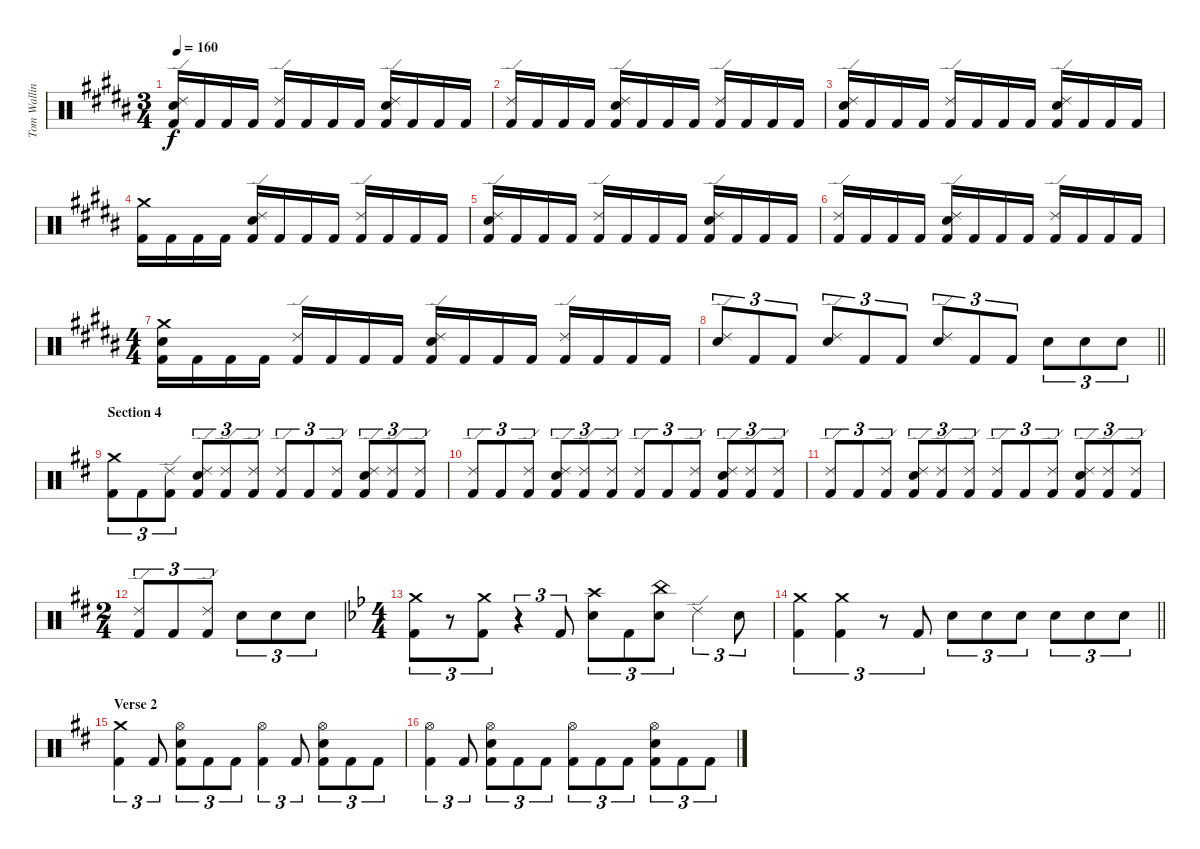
\track ("Tom Walling (drums)" "Tom Wallin") {instrument percussion}
\staff {score}
\articulation defaults
\ts (3 4)
\tempo 160
\clef neutral
\ks g#minor
("Electric Snare (hit)" "Kick (hit) 2" "Ride (edge) 2").16{dy f} "Kick (hit) 2".16 "Kick (hit) 2".16 "Kick (hit) 2".16 ("Kick (hit) 2" "Ride (edge) 2").16 "Kick (hit) 2".16 "Kick (hit) 2".16 "Kick (hit) 2".16 ("Electric Snare (hit)" "Kick (hit) 2" "Ride (edge) 2").16 "Kick (hit) 2".16 "Kick (hit) 2".16 "Kick (hit) 2".16 |
("Ride (edge) 2" "Kick (hit) 2").16 "Kick (hit) 2".16 "Kick (hit) 2".16 "Kick (hit) 2".16 ("Electric Snare (hit)" "Kick (hit) 2" "Ride (edge) 2").16 "Kick (hit) 2".16 "Kick (hit) 2".16 "Kick (hit) 2".16 ("Kick (hit) 2" "Ride (edge) 2").16 "Kick (hit) 2".16 "Kick (hit) 2".16 "Kick (hit) 2".16 |
("Electric Snare (hit)" "Kick (hit) 2" "Ride (edge) 2").16 "Kick (hit) 2".16 "Kick (hit) 2".16 "Kick (hit) 2".16 ("Kick (hit) 2" "Ride (edge) 2").16 "Kick (hit) 2".16 "Kick (hit) 2".16 "Kick (hit) 2".16 ("Electric Snare (hit)" "Kick (hit) 2" "Ride (edge) 2").16 "Kick (hit) 2".16 "Kick (hit) 2".16 "Kick (hit) 2".16 |
("Kick (hit) 2" "Crash medium (hit)").16 "Kick (hit) 2".16 "Kick (hit) 2".16 "Kick (hit) 2".16 ("Electric Snare (hit)" "Kick (hit) 2" "Ride (edge) 2").16 "Kick (hit) 2".16 "Kick (hit) 2".16 "Kick (hit) 2".16 ("Kick (hit) 2" "Ride (edge) 2").16 "Kick (hit) 2".16 "Kick (hit) 2".16 "Kick (hit) 2".16 |
("Electric Snare (hit)" "Kick (hit) 2" "Ride (edge) 2").16 "Kick (hit) 2".16 "Kick (hit) 2".16 "Kick (hit) 2".16 ("Kick (hit) 2" "Ride (edge) 2").16 "Kick (hit) 2".16 "Kick (hit) 2".16 "Kick (hit) 2".16 ("Electric Snare (hit)" "Kick (hit) 2" "Ride (edge) 2").16 "Kick (hit) 2".16 "Kick (hit) 2".16 "Kick (hit) 2".16 |
("Ride (edge) 2" "Kick (hit) 2").16 "Kick (hit) 2".16 "Kick (hit) 2".16 "Kick (hit) 2".16 ("Electric Snare (hit)" "Kick (hit) 2" "Ride (edge) 2").16 "Kick (hit) 2".16 "Kick (hit) 2".16 "Kick (hit) 2".16 ("Kick (hit) 2" "Ride (edge) 2").16 "Kick (hit) 2".16 "Kick (hit) 2".16 "Kick (hit) 2".16 |
\ts (4 4)
("Crash medium (hit)" "Electric Snare (hit)" "Kick (hit) 2").16 "Kick (hit) 2".16 "Kick (hit) 2".16 "Kick (hit) 2".16 ("Kick (hit) 2" "Ride (edge) 2").16 "Kick (hit) 2".16 "Kick (hit) 2".16 "Kick (hit) 2".16 ("Electric Snare (hit)" "Kick (hit) 2" "Ride (edge) 2").16 "Kick (hit) 2".16 "Kick (hit) 2".16 "Kick (hit) 2".16 ("Ride (edge) 2" "Kick (hit) 2").16 "Kick (hit) 2".16 "Kick (hit) 2".16 "Kick (hit) 2".16 |
\barLineRight lightlight
("Ride (edge) 2" "Electric Snare (hit)").8{tu (3 2)} "Kick (hit) 2".8{tu (3 2)} "Kick (hit) 2".8{tu (3 2)} ("Ride (edge) 2" "Electric Snare (hit)").8{tu (3 2)} "Kick (hit) 2".8{tu (3 2)} "Kick (hit) 2".8{tu (3 2)} ("Ride (edge) 2" "Electric Snare (hit)").8{tu (3 2)} "Kick (hit) 2".8{tu (3 2)} "Kick (hit) 2".8{tu (3 2)} "Electric Snare (hit)".8{tu (3 2)} "Electric Snare (hit)".8{tu (3 2)} "Electric Snare (hit)".8{tu (3 2)} |
\section ("" "Section 4")
\ks bminor
("Crash medium (hit)" "Kick (hit) 2").8{tu (3 2)} "Kick (hit) 2".8{tu (3 2)} ("Ride (edge) 2" "Kick (hit) 2").8{tu (3 2)} ("Ride (edge) 2" "Electric Snare (hit)" "Kick (hit) 2").8{tu (3 2)} ("Ride (edge) 2" "Kick (hit) 2").8{tu (3 2)} ("Ride (edge) 2" "Kick (hit) 2").8{tu (3 2)} ("Ride (edge) 2" "Kick (hit) 2").8{tu (3 2)} "Kick (hit) 2".8{tu (3 2)} ("Ride (edge) 2" "Kick (hit) 2").8{tu (3 2)} ("Ride (edge) 2" "Electric Snare (hit)" "Kick (hit) 2").8{tu (3 2)} ("Ride (edge) 2" "Kick (hit) 2").8{tu (3 2)} ("Ride (edge) 2" "Kick (hit) 2").8{tu (3 2)} |
("Ride (edge) 2" "Kick (hit) 2").8{tu (3 2)} "Kick (hit) 2".8{tu (3 2)} ("Ride (edge) 2" "Kick (hit) 2").8{tu (3 2)} ("Ride (edge) 2" "Electric Snare (hit)" "Kick (hit) 2").8{tu (3 2)} ("Ride (edge) 2" "Kick (hit) 2").8{tu (3 2)} ("Ride (edge) 2" "Kick (hit) 2").8{tu (3 2)} ("Ride (edge) 2" "Kick (hit) 2").8{tu (3 2)} "Kick (hit) 2".8{tu (3 2)} ("Ride (edge) 2" "Kick (hit) 2").8{tu (3 2)} ("Ride (edge) 2" "Electric Snare (hit)" "Kick (hit) 2").8{tu (3 2)} ("Ride (edge) 2" "Kick (hit) 2").8{tu (3 2)} ("Ride (edge) 2" "Kick (hit) 2").8{tu (3 2)} |
("Ride (edge) 2" "Kick (hit) 2").8{tu (3 2)} "Kick (hit) 2".8{tu (3 2)} ("Ride (edge) 2" "Kick (hit) 2").8{tu (3 2)} ("Ride (edge) 2" "Electric Snare (hit)" "Kick (hit) 2").8{tu (3 2)} ("Ride (edge) 2" "Kick (hit) 2").8{tu (3 2)} ("Ride (edge) 2" "Kick (hit) 2").8{tu (3 2)} ("Ride (edge) 2" "Kick (hit) 2").8{tu (3 2)} "Kick (hit) 2".8{tu (3 2)} ("Ride (edge) 2" "Kick (hit) 2").8{tu (3 2)} ("Ride (edge) 2" "Electric Snare (hit)" "Kick (hit) 2").8{tu (3 2)} ("Ride (edge) 2" "Kick (hit) 2").8{tu (3 2)} ("Ride (edge) 2" "Kick (hit) 2").8{tu (3 2)} |
\ts (2 4)
("Ride (edge) 2" "Kick (hit) 2").8{tu (3 2)} "Kick (hit) 2".8{tu (3 2)} ("Ride (edge) 2" "Kick (hit) 2").8{tu (3 2)} "Electric Snare (hit)".8{tu (3 2)} "Electric Snare (hit)".8{tu (3 2)} "Electric Snare (hit)".8{tu (3 2)} |
\ts (4 4)
\ks gminor
("Crash medium (hit)" "Kick (hit) 2").8{tu (3 2)} r.8{tu (3 2)} ("Crash medium (hit)" "Kick (hit) 2").8{tu (3 2)} r.4{tu (3 2)} "Kick (hit) 2".8{tu (3 2)} ("Crash high (hit)" "Electric Snare (hit)").8{tu (3 2)} "Kick (hit) 2".8{tu (3 2)} ("China (hit)" "Electric Snare (hit)").8{tu (3 2)} "Ride (edge) 2".4{tu (3 2)} "Electric Snare (hit)".8{tu (3 2)} |
\barLineRight lightlight
("Crash medium (hit)" "Kick (hit) 2").4{tu (3 2)} ("Crash medium (hit)" "Kick (hit) 2").4{tu (3 2)} r.8{tu (3 2)} "Kick (hit) 2".8{tu (3 2)} "Electric Snare (hit)".8{tu (3 2)} "Electric Snare (hit)".8{tu (3 2)} "Electric Snare (hit)".8{tu (3 2)} "Electric Snare (hit)".8{tu (3 2)} "Electric Snare (hit)".8{tu (3 2)} "Electric Snare (hit)".8{tu (3 2)} |
\section ("" "Verse 2")
\ks bminor
("Crash medium (hit)" "Kick (hit) 2").4{tu (3 2)} "Kick (hit) 2".8{tu (3 2)} ("Hi-Hat (open)" "Electric Snare (hit)" "Kick (hit) 2").8{tu (3 2)} "Kick (hit) 2".8{tu (3 2)} "Kick (hit) 2".8{tu (3 2)} ("Hi-Hat (open)" "Kick (hit) 2").4{tu (3 2)} "Kick (hit) 2".8{tu (3 2)} ("Hi-Hat (open)" "Electric Snare (hit)" "Kick (hit) 2").8{tu (3 2)} "Kick (hit) 2".8{tu (3 2)} "Kick (hit) 2".8{tu (3 2)} |
("Hi-Hat (open)" "Kick (hit) 2").4{tu (3 2)} "Kick (hit) 2".8{tu (3 2)} ("Hi-Hat (open)" "Electric Snare (hit)" "Kick (hit) 2").8{tu (3 2)} "Kick (hit) 2".8{tu (3 2)} "Kick (hit) 2".8{tu (3 2)} ("Hi-Hat (open)" "Kick (hit) 2").8{tu (3 2)} "Kick (hit) 2".8{tu (3 2)} "Kick (hit) 2".8{tu (3 2)} ("Hi-Hat (open)" "Electric Snare (hit)" "Kick (hit) 2").8{tu (3 2)} "Kick (hit) 2".8{tu (3 2)} "Kick (hit) 2".8{tu (3 2)}
